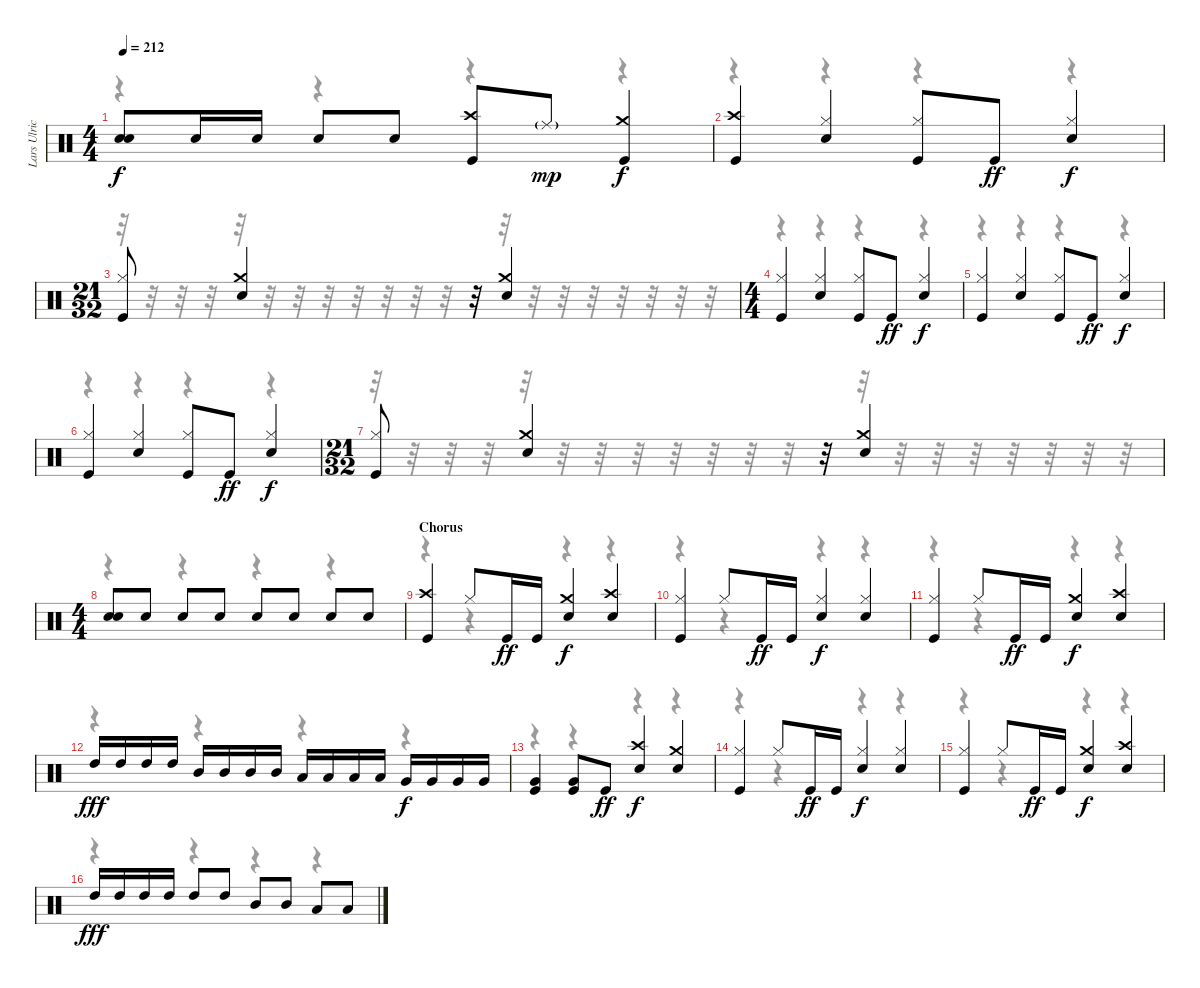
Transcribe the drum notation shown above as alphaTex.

\track ("Lars Ulrich" "Lars Ulric") {instrument percussion}
\staff {score}
\articulation defaults
\voice
\ts (4 4)
\tempo 212
\clef neutral
\ks c
("Snare (hit) 2" "Snare (hit) 2").8{dy f} "Snare (hit) 2".16 "Snare (hit) 2".16 "Snare (hit) 2".8 "Snare (hit) 2".8 ("Crash high (hit)" "Kick (hit)").8 "Ride (middle)"{g}.8{dy mp} ("Crash medium (hit)" "Kick (hit)").4{dy f} |
("Crash high (hit)" "Kick (hit)").4 ("Hi-Hat (closed)" "Snare (hit) 2").4 ("Hi-Hat (closed)" "Kick (hit)").8 "Kick (hit)".8{dy ff} ("Hi-Hat (closed)" "Snare (hit) 2").4{dy f} |
\ts (21 32)
("Hi-Hat (closed)" "Kick (hit)").8 ("Crash medium (hit)" "Snare (hit) 2").4 r.32 ("Crash medium (hit)" "Snare (hit) 2").4 |
\ts (4 4)
("Hi-Hat (closed)" "Kick (hit)").4 ("Hi-Hat (closed)" "Snare (hit) 2").4 ("Hi-Hat (closed)" "Kick (hit)").8 "Kick (hit)".8{dy ff} ("Hi-Hat (closed)" "Snare (hit) 2").4{dy f} |
("Hi-Hat (closed)" "Kick (hit)").4 ("Hi-Hat (closed)" "Snare (hit) 2").4 ("Hi-Hat (closed)" "Kick (hit)").8 "Kick (hit)".8{dy ff} ("Hi-Hat (closed)" "Snare (hit) 2").4{dy f} |
("Hi-Hat (closed)" "Kick (hit)").4 ("Hi-Hat (closed)" "Snare (hit) 2").4 ("Hi-Hat (closed)" "Kick (hit)").8 "Kick (hit)".8{dy ff} ("Hi-Hat (closed)" "Snare (hit) 2").4{dy f} |
\ts (21 32)
("Hi-Hat (closed)" "Kick (hit)").8 ("Crash medium (hit)" "Snare (hit) 2").4 r.32 ("Crash medium (hit)" "Snare (hit) 2").4 |
\ts (4 4)
("Snare (hit) 2" "Snare (hit) 2").8 "Snare (hit) 2".8 "Snare (hit) 2".8 "Snare (hit) 2".8 "Snare (hit) 2".8 "Snare (hit) 2".8 "Snare (hit) 2".8 "Snare (hit) 2".8 |
\section ("" "Chorus")
("Crash high (hit)" "Kick (hit)").4 "Hi-Hat (closed)".8 "Kick (hit)".16{dy ff} "Kick (hit)".16 ("Crash medium (hit)" "Snare (hit) 2").4{dy f} ("Crash high (hit)" "Snare (hit) 2").4 |
("Hi-Hat (closed)" "Kick (hit)").4 "Hi-Hat (closed)".8 "Kick (hit)".16{dy ff} "Kick (hit)".16 ("Hi-Hat (closed)" "Snare (hit) 2").4{dy f} ("Hi-Hat (closed)" "Snare (hit) 2").4 |
("Hi-Hat (closed)" "Kick (hit)").4 "Hi-Hat (closed)".8 "Kick (hit)".16{dy ff} "Kick (hit)".16 ("Crash medium (hit)" "Snare (hit) 2").4{dy f} ("Crash high (hit)" "Snare (hit) 2").4 |
"High Tom (hit)".16{dy fff} "High Tom (hit)".16 "High Tom (hit)".16 "High Tom (hit)".16 "Mid Tom (hit)".16 "Mid Tom (hit)".16 "Mid Tom (hit)".16 "Mid Tom (hit)".16 "Low Tom (hit)".16 "Low Tom (hit)".16 "Low Tom (hit)".16 "Low Tom (hit)".16 "Very Low Tom (hit)".16{dy f} "Very Low Tom (hit)".16 "Very Low Tom (hit)".16 "Very Low Tom (hit)".16 |
("Very Low Tom (hit)" "Kick (hit)").4 ("Very Low Tom (hit)" "Kick (hit)").8 "Kick (hit)".8{dy ff} ("Crash high (hit)" "Snare (hit) 2").4{dy f} ("Crash medium (hit)" "Snare (hit) 2").4 |
("Hi-Hat (closed)" "Kick (hit)").4 "Hi-Hat (closed)".8 "Kick (hit)".16{dy ff} "Kick (hit)".16 ("Hi-Hat (closed)" "Snare (hit) 2").4{dy f} ("Hi-Hat (closed)" "Snare (hit) 2").4 |
("Hi-Hat (closed)" "Kick (hit)").4 "Hi-Hat (closed)".8 "Kick (hit)".16{dy ff} "Kick (hit)".16 ("Crash medium (hit)" "Snare (hit) 2").4{dy f} ("Crash high (hit)" "Snare (hit) 2").4 |
"High Tom (hit)".16{dy fff} "High Tom (hit)".16 "High Tom (hit)".16 "High Tom (hit)".16 "High Tom (hit)".8 "High Tom (hit)".8 "Mid Tom (hit)".8 "Mid Tom (hit)".8 "Low Tom (hit)".8 "Low Tom (hit)".8
\voice
\clef neutral
\ottava regular
\simile none
\ks c
r.4{dy f} r.4 r.4 r.4 |
r.4 r.4 r.4 r.4 |
r.32 r.32 r.32 r.32 r.32 r.32 r.32 r.32 r.32 r.32 r.32 r.32 r.32 r.32 r.32 r.32 r.32 r.32 r.32 r.32 r.32 |
r.4 r.4 r.4 r.4 |
r.4 r.4 r.4 r.4 |
r.4 r.4 r.4 r.4 |
r.32 r.32 r.32 r.32 r.32 r.32 r.32 r.32 r.32 r.32 r.32 r.32 r.32 r.32 r.32 r.32 r.32 r.32 r.32 r.32 r.32 |
r.4 r.4 r.4 r.4 |
r.4 r.4 r.4 r.4 |
r.4 r.4 r.4 r.4 |
r.4 r.4 r.4 r.4 |
r.4 r.4 r.4 r.4 |
r.4 r.4 r.4 r.4 |
r.4 r.4 r.4 r.4 |
r.4 r.4 r.4 r.4 |
r.4 r.4 r.4 r.4
